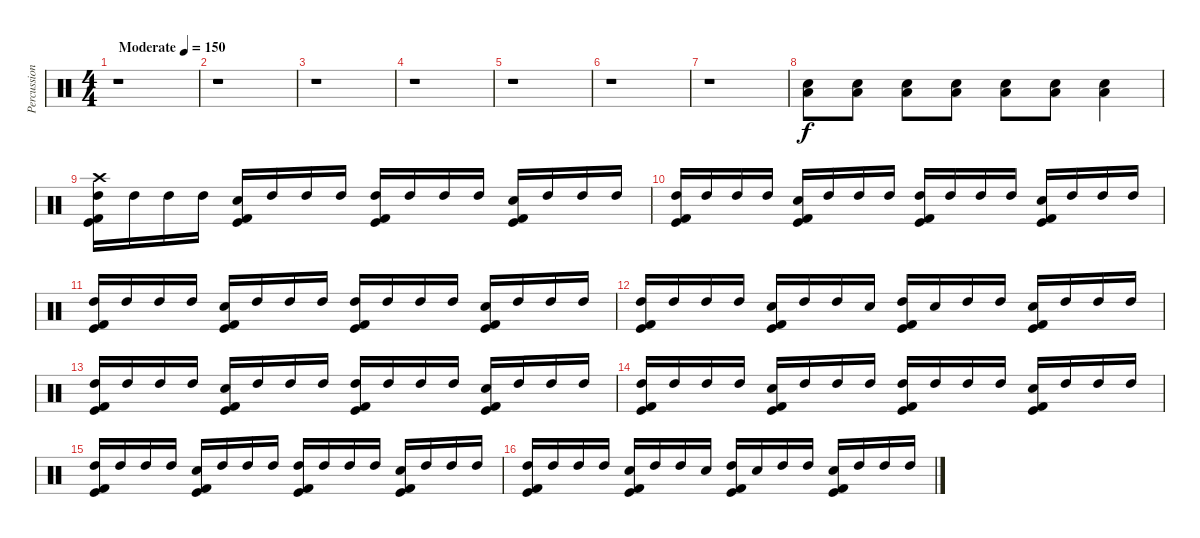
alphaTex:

\track ("Percussion" "Percussion") {instrument percussion}
\staff {score}
\articulation defaults
\ts (4 4)
\tempo (150 "Moderate")
\clef neutral
\ks c
r.1{dy f} |
r.1 |
r.1 |
r.1 |
r.1 |
r.1 |
r.1 |
("Low Tom (hit)" "Electric Snare (hit)").8 ("Low Tom (hit)" "Electric Snare (hit)").8 ("Low Tom (hit)" "Electric Snare (hit)").8 ("Low Tom (hit)" "Electric Snare (hit)").8 ("Low Tom (hit)" "Electric Snare (hit)").8 ("Low Tom (hit)" "Electric Snare (hit)").8 ("Low Tom (hit)" "Electric Snare (hit)").4 |
("Crash high (hit)" "High Tom (hit)" "Kick (hit)" "Kick (hit) 2").16 "High Tom (hit)".16 "High Tom (hit)".16 "High Tom (hit)".16 ("Electric Snare (hit)" "Kick (hit)" "Kick (hit) 2").16 "High Tom (hit)".16 "High Tom (hit)".16 "High Tom (hit)".16 ("High Tom (hit)" "Kick (hit)" "Kick (hit) 2").16 "High Tom (hit)".16 "High Tom (hit)".16 "High Tom (hit)".16 ("Electric Snare (hit)" "Kick (hit)" "Kick (hit) 2").16 "High Tom (hit)".16 "High Tom (hit)".16 "High Tom (hit)".16 |
("High Tom (hit)" "Kick (hit)" "Kick (hit) 2").16 "High Tom (hit)".16 "High Tom (hit)".16 "High Tom (hit)".16 ("Electric Snare (hit)" "Kick (hit)" "Kick (hit) 2").16 "High Tom (hit)".16 "High Tom (hit)".16 "High Tom (hit)".16 ("High Tom (hit)" "Kick (hit)" "Kick (hit) 2").16 "High Tom (hit)".16 "High Tom (hit)".16 "High Tom (hit)".16 ("Electric Snare (hit)" "Kick (hit)" "Kick (hit) 2").16 "High Tom (hit)".16 "High Tom (hit)".16 "High Tom (hit)".16 |
("High Tom (hit)" "Kick (hit)" "Kick (hit) 2").16 "High Tom (hit)".16 "High Tom (hit)".16 "High Tom (hit)".16 ("Electric Snare (hit)" "Kick (hit)" "Kick (hit) 2").16 "High Tom (hit)".16 "High Tom (hit)".16 "High Tom (hit)".16 ("High Tom (hit)" "Kick (hit)" "Kick (hit) 2").16 "High Tom (hit)".16 "High Tom (hit)".16 "High Tom (hit)".16 ("Electric Snare (hit)" "Kick (hit)" "Kick (hit) 2").16 "High Tom (hit)".16 "High Tom (hit)".16 "High Tom (hit)".16 |
("High Tom (hit)" "Kick (hit)" "Kick (hit) 2").16 "High Tom (hit)".16 "High Tom (hit)".16 "High Tom (hit)".16 ("Electric Snare (hit)" "Kick (hit)" "Kick (hit) 2").16 "High Tom (hit)".16 "High Tom (hit)".16 "Electric Snare (hit)".16 ("High Tom (hit)" "Kick (hit)" "Kick (hit) 2").16 "Electric Snare (hit)".16 "High Tom (hit)".16 "High Tom (hit)".16 ("Electric Snare (hit)" "Kick (hit)" "Kick (hit) 2").16 "High Tom (hit)".16 "High Tom (hit)".16 "High Tom (hit)".16 |
("High Tom (hit)" "Kick (hit)" "Kick (hit) 2").16 "High Tom (hit)".16 "High Tom (hit)".16 "High Tom (hit)".16 ("Electric Snare (hit)" "Kick (hit)" "Kick (hit) 2").16 "High Tom (hit)".16 "High Tom (hit)".16 "High Tom (hit)".16 ("High Tom (hit)" "Kick (hit)" "Kick (hit) 2").16 "High Tom (hit)".16 "High Tom (hit)".16 "High Tom (hit)".16 ("Electric Snare (hit)" "Kick (hit)" "Kick (hit) 2").16 "High Tom (hit)".16 "High Tom (hit)".16 "High Tom (hit)".16 |
("High Tom (hit)" "Kick (hit)" "Kick (hit) 2").16 "High Tom (hit)".16 "High Tom (hit)".16 "High Tom (hit)".16 ("Electric Snare (hit)" "Kick (hit)" "Kick (hit) 2").16 "High Tom (hit)".16 "High Tom (hit)".16 "High Tom (hit)".16 ("High Tom (hit)" "Kick (hit)" "Kick (hit) 2").16 "High Tom (hit)".16 "High Tom (hit)".16 "High Tom (hit)".16 ("Electric Snare (hit)" "Kick (hit)" "Kick (hit) 2").16 "High Tom (hit)".16 "High Tom (hit)".16 "High Tom (hit)".16 |
("High Tom (hit)" "Kick (hit)" "Kick (hit) 2").16 "High Tom (hit)".16 "High Tom (hit)".16 "High Tom (hit)".16 ("Electric Snare (hit)" "Kick (hit)" "Kick (hit) 2").16 "High Tom (hit)".16 "High Tom (hit)".16 "High Tom (hit)".16 ("High Tom (hit)" "Kick (hit)" "Kick (hit) 2").16 "High Tom (hit)".16 "High Tom (hit)".16 "High Tom (hit)".16 ("Electric Snare (hit)" "Kick (hit)" "Kick (hit) 2").16 "High Tom (hit)".16 "High Tom (hit)".16 "High Tom (hit)".16 |
("High Tom (hit)" "Kick (hit)" "Kick (hit) 2").16 "High Tom (hit)".16 "High Tom (hit)".16 "High Tom (hit)".16 ("Electric Snare (hit)" "Kick (hit)" "Kick (hit) 2").16 "High Tom (hit)".16 "High Tom (hit)".16 "Electric Snare (hit)".16 ("High Tom (hit)" "Kick (hit)" "Kick (hit) 2").16 "Electric Snare (hit)".16 "High Tom (hit)".16 "High Tom (hit)".16 ("Electric Snare (hit)" "Kick (hit)" "Kick (hit) 2").16 "High Tom (hit)".16 "High Tom (hit)".16 "High Tom (hit)".16
